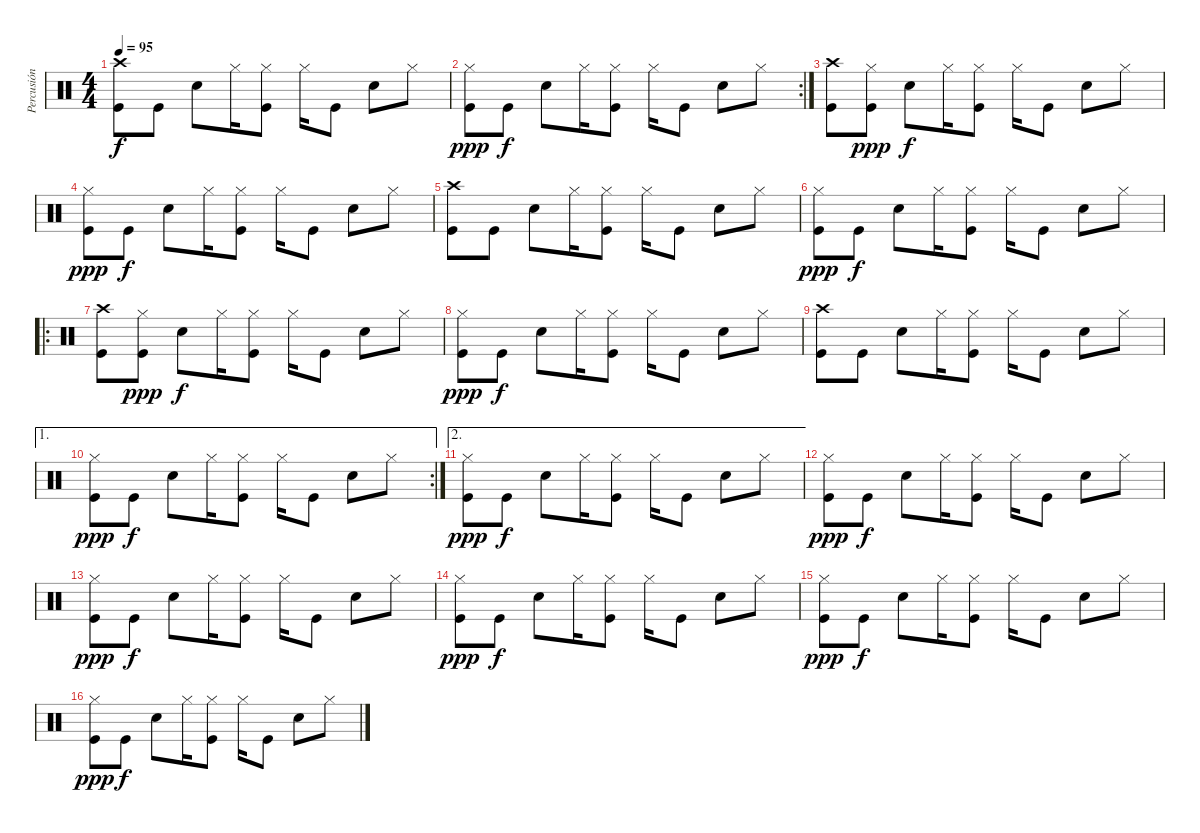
\track ("Percusión" "Percusión") {instrument percussion}
\staff {score}
\articulation defaults
\ts (4 4)
\tempo 95
\clef neutral
\ks c
("Kick (hit)" "Crash high (hit)").8{dy f} "Kick (hit)".8 "Snare (hit) 2".8 "Hi-Hat (closed)".16 ("Kick (hit)" "Hi-Hat (closed)").8 "Hi-Hat (closed)".16 "Kick (hit)".8 "Snare (hit) 2".8 "Hi-Hat (closed)".8 |
\rc 2
("Kick (hit)" "Hi-Hat (closed)").8{dy ppp} "Kick (hit)".8{dy f} "Snare (hit) 2".8 "Hi-Hat (closed)".16 ("Kick (hit)" "Hi-Hat (closed)").8 "Hi-Hat (closed)".16 "Kick (hit)".8 "Snare (hit) 2".8 "Hi-Hat (closed)".8 |
("Kick (hit)" "Crash high (hit)").8 ("Kick (hit)" "Hi-Hat (closed)").8{dy ppp} "Snare (hit) 2".8{dy f} "Hi-Hat (closed)".16 ("Kick (hit)" "Hi-Hat (closed)").8 "Hi-Hat (closed)".16 "Kick (hit)".8 "Snare (hit) 2".8 "Hi-Hat (closed)".8 |
("Kick (hit)" "Hi-Hat (closed)").8{dy ppp} "Kick (hit)".8{dy f} "Snare (hit) 2".8 "Hi-Hat (closed)".16 ("Kick (hit)" "Hi-Hat (closed)").8 "Hi-Hat (closed)".16 "Kick (hit)".8 "Snare (hit) 2".8 "Hi-Hat (closed)".8 |
("Kick (hit)" "Crash high (hit)").8 "Kick (hit)".8 "Snare (hit) 2".8 "Hi-Hat (closed)".16 ("Kick (hit)" "Hi-Hat (closed)").8 "Hi-Hat (closed)".16 "Kick (hit)".8 "Snare (hit) 2".8 "Hi-Hat (closed)".8 |
("Kick (hit)" "Hi-Hat (closed)").8{dy ppp} "Kick (hit)".8{dy f} "Snare (hit) 2".8 "Hi-Hat (closed)".16 ("Kick (hit)" "Hi-Hat (closed)").8 "Hi-Hat (closed)".16 "Kick (hit)".8 "Snare (hit) 2".8 "Hi-Hat (closed)".8 |
\ro
("Kick (hit)" "Crash high (hit)").8 ("Kick (hit)" "Hi-Hat (closed)").8{dy ppp} "Snare (hit) 2".8{dy f} "Hi-Hat (closed)".16 ("Kick (hit)" "Hi-Hat (closed)").8 "Hi-Hat (closed)".16 "Kick (hit)".8 "Snare (hit) 2".8 "Hi-Hat (closed)".8 |
("Kick (hit)" "Hi-Hat (closed)").8{dy ppp} "Kick (hit)".8{dy f} "Snare (hit) 2".8 "Hi-Hat (closed)".16 ("Kick (hit)" "Hi-Hat (closed)").8 "Hi-Hat (closed)".16 "Kick (hit)".8 "Snare (hit) 2".8 "Hi-Hat (closed)".8 |
("Kick (hit)" "Crash high (hit)").8 "Kick (hit)".8 "Snare (hit) 2".8 "Hi-Hat (closed)".16 ("Kick (hit)" "Hi-Hat (closed)").8 "Hi-Hat (closed)".16 "Kick (hit)".8 "Snare (hit) 2".8 "Hi-Hat (closed)".8 |
\ae 1
\rc 2
("Kick (hit)" "Hi-Hat (closed)").8{dy ppp} "Kick (hit)".8{dy f} "Snare (hit) 2".8 "Hi-Hat (closed)".16 ("Kick (hit)" "Hi-Hat (closed)").8 "Hi-Hat (closed)".16 "Kick (hit)".8 "Snare (hit) 2".8 "Hi-Hat (closed)".8 |
\ae 2
("Kick (hit)" "Hi-Hat (closed)").8{dy ppp} "Kick (hit)".8{dy f} "Snare (hit) 2".8 "Hi-Hat (closed)".16 ("Kick (hit)" "Hi-Hat (closed)").8 "Hi-Hat (closed)".16 "Kick (hit)".8 "Snare (hit) 2".8 "Hi-Hat (closed)".8 |
("Kick (hit)" "Hi-Hat (closed)").8{dy ppp} "Kick (hit)".8{dy f} "Snare (hit) 2".8 "Hi-Hat (closed)".16 ("Kick (hit)" "Hi-Hat (closed)").8 "Hi-Hat (closed)".16 "Kick (hit)".8 "Snare (hit) 2".8 "Hi-Hat (closed)".8 |
("Kick (hit)" "Hi-Hat (closed)").8{dy ppp} "Kick (hit)".8{dy f} "Snare (hit) 2".8 "Hi-Hat (closed)".16 ("Kick (hit)" "Hi-Hat (closed)").8 "Hi-Hat (closed)".16 "Kick (hit)".8 "Snare (hit) 2".8 "Hi-Hat (closed)".8 |
("Kick (hit)" "Hi-Hat (closed)").8{dy ppp} "Kick (hit)".8{dy f} "Snare (hit) 2".8 "Hi-Hat (closed)".16 ("Kick (hit)" "Hi-Hat (closed)").8 "Hi-Hat (closed)".16 "Kick (hit)".8 "Snare (hit) 2".8 "Hi-Hat (closed)".8 |
("Kick (hit)" "Hi-Hat (closed)").8{dy ppp volume 12} "Kick (hit)".8{dy f} "Snare (hit) 2".8 "Hi-Hat (closed)".16 ("Kick (hit)" "Hi-Hat (closed)").8 "Hi-Hat (closed)".16 "Kick (hit)".8 "Snare (hit) 2".8 "Hi-Hat (closed)".8 |
("Kick (hit)" "Hi-Hat (closed)").8{dy ppp} "Kick (hit)".8{dy f} "Snare (hit) 2".8 "Hi-Hat (closed)".16 ("Kick (hit)" "Hi-Hat (closed)").8 "Hi-Hat (closed)".16 "Kick (hit)".8 "Snare (hit) 2".8 "Hi-Hat (closed)".8
